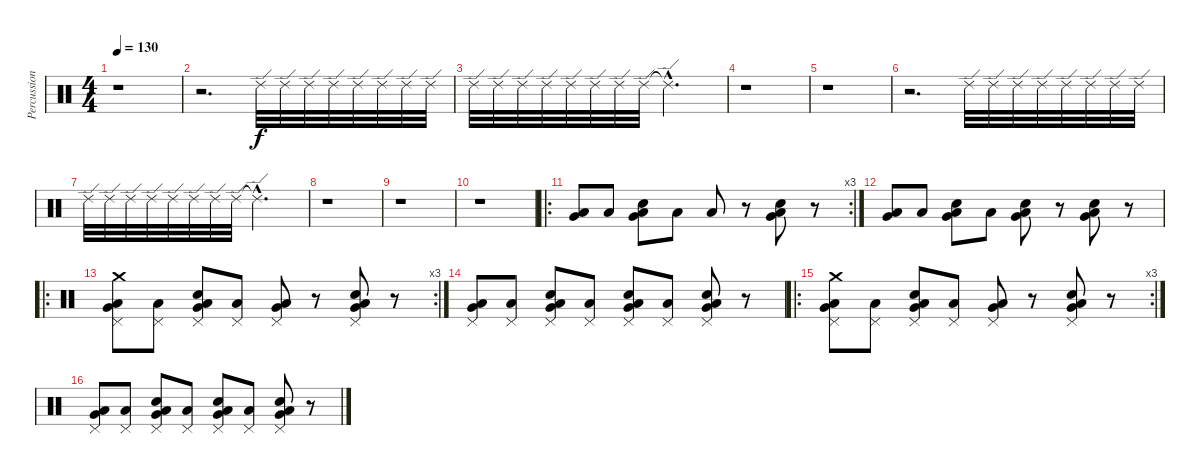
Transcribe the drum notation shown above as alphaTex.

\track ("Percussions" "Percussion") {instrument percussion}
\staff {score}
\articulation defaults
\ts (4 4)
\tempo 130
\clef neutral
\ks c
r.1{dy f} |
r.2{d} "Ride (edge) 2".32 "Ride (edge) 2".32 "Ride (edge) 2".32 "Ride (edge) 2".32 "Ride (edge) 2".32 "Ride (edge) 2".32 "Ride (edge) 2".32 "Ride (edge) 2".32 |
"Ride (edge) 2".32 "Ride (edge) 2".32 "Ride (edge) 2".32 "Ride (edge) 2".32 "Ride (edge) 2".32 "Ride (edge) 2".32 "Ride (edge) 2".32 "Ride (edge) 2".32 "Ride (edge) 2"{hac t}.2{d} |
r.1 |
r.1 |
r.2{d} "Ride (edge) 2".32 "Ride (edge) 2".32 "Ride (edge) 2".32 "Ride (edge) 2".32 "Ride (edge) 2".32 "Ride (edge) 2".32 "Ride (edge) 2".32 "Ride (edge) 2".32 |
"Ride (edge) 2".32 "Ride (edge) 2".32 "Ride (edge) 2".32 "Ride (edge) 2".32 "Ride (edge) 2".32 "Ride (edge) 2".32 "Ride (edge) 2".32 "Ride (edge) 2".32 "Ride (edge) 2"{hac t}.2{d} |
r.1 |
r.1 |
r.1 |
\ro
\rc 3
("Low Floor Tom (hit)" "Very Low Tom (hit)").8 "Low Floor Tom (hit)".8 ("Low Floor Tom (hit)" "Snare (hit) 2" "Very Low Tom (hit)").8 "Low Floor Tom (hit)".8 "Low Floor Tom (hit)".8 r.8 ("Low Floor Tom (hit)" "Snare (hit) 2" "Very Low Tom (hit)").8 r.8 |
("Low Floor Tom (hit)" "Very Low Tom (hit)").8 "Low Floor Tom (hit)".8 ("Low Floor Tom (hit)" "Snare (hit) 2" "Very Low Tom (hit)").8 "Low Floor Tom (hit)".8 ("Low Floor Tom (hit)" "Snare (hit) 2" "Very Low Tom (hit)").8 r.8 ("Low Floor Tom (hit)" "Snare (hit) 2" "Very Low Tom (hit)").8 r.8 |
\ro
\rc 3
("Low Floor Tom (hit)" "Very Low Tom (hit)" "Pedal Hi-Hat (hit)" "Crash medium (hit)").8 ("Low Floor Tom (hit)" "Pedal Hi-Hat (hit)").8 ("Low Floor Tom (hit)" "Snare (hit) 2" "Very Low Tom (hit)" "Pedal Hi-Hat (hit)").8 ("Low Floor Tom (hit)" "Pedal Hi-Hat (hit)").8 ("Low Floor Tom (hit)" "Very Low Tom (hit)" "Pedal Hi-Hat (hit)").8 r.8 ("Low Floor Tom (hit)" "Snare (hit) 2" "Very Low Tom (hit)" "Pedal Hi-Hat (hit)").8 r.8 |
("Low Floor Tom (hit)" "Very Low Tom (hit)" "Pedal Hi-Hat (hit)").8 ("Low Floor Tom (hit)" "Pedal Hi-Hat (hit)").8 ("Low Floor Tom (hit)" "Snare (hit) 2" "Very Low Tom (hit)" "Pedal Hi-Hat (hit)").8 ("Low Floor Tom (hit)" "Pedal Hi-Hat (hit)").8 ("Low Floor Tom (hit)" "Snare (hit) 2" "Very Low Tom (hit)" "Pedal Hi-Hat (hit)").8 ("Low Floor Tom (hit)" "Pedal Hi-Hat (hit)").8 ("Low Floor Tom (hit)" "Snare (hit) 2" "Very Low Tom (hit)" "Pedal Hi-Hat (hit)").8 r.8 |
\ro
\rc 3
("Low Floor Tom (hit)" "Very Low Tom (hit)" "Pedal Hi-Hat (hit)" "Crash medium (hit)").8 ("Low Floor Tom (hit)" "Pedal Hi-Hat (hit)").8 ("Low Floor Tom (hit)" "Snare (hit) 2" "Very Low Tom (hit)" "Pedal Hi-Hat (hit)").8 ("Low Floor Tom (hit)" "Pedal Hi-Hat (hit)").8 ("Low Floor Tom (hit)" "Very Low Tom (hit)" "Pedal Hi-Hat (hit)").8 r.8 ("Low Floor Tom (hit)" "Snare (hit) 2" "Very Low Tom (hit)" "Pedal Hi-Hat (hit)").8 r.8 |
("Low Floor Tom (hit)" "Very Low Tom (hit)" "Pedal Hi-Hat (hit)").8 ("Low Floor Tom (hit)" "Pedal Hi-Hat (hit)").8 ("Low Floor Tom (hit)" "Snare (hit) 2" "Very Low Tom (hit)" "Pedal Hi-Hat (hit)").8 ("Low Floor Tom (hit)" "Pedal Hi-Hat (hit)").8 ("Low Floor Tom (hit)" "Snare (hit) 2" "Very Low Tom (hit)" "Pedal Hi-Hat (hit)").8 ("Low Floor Tom (hit)" "Pedal Hi-Hat (hit)").8 ("Low Floor Tom (hit)" "Snare (hit) 2" "Very Low Tom (hit)" "Pedal Hi-Hat (hit)").8 r.8
